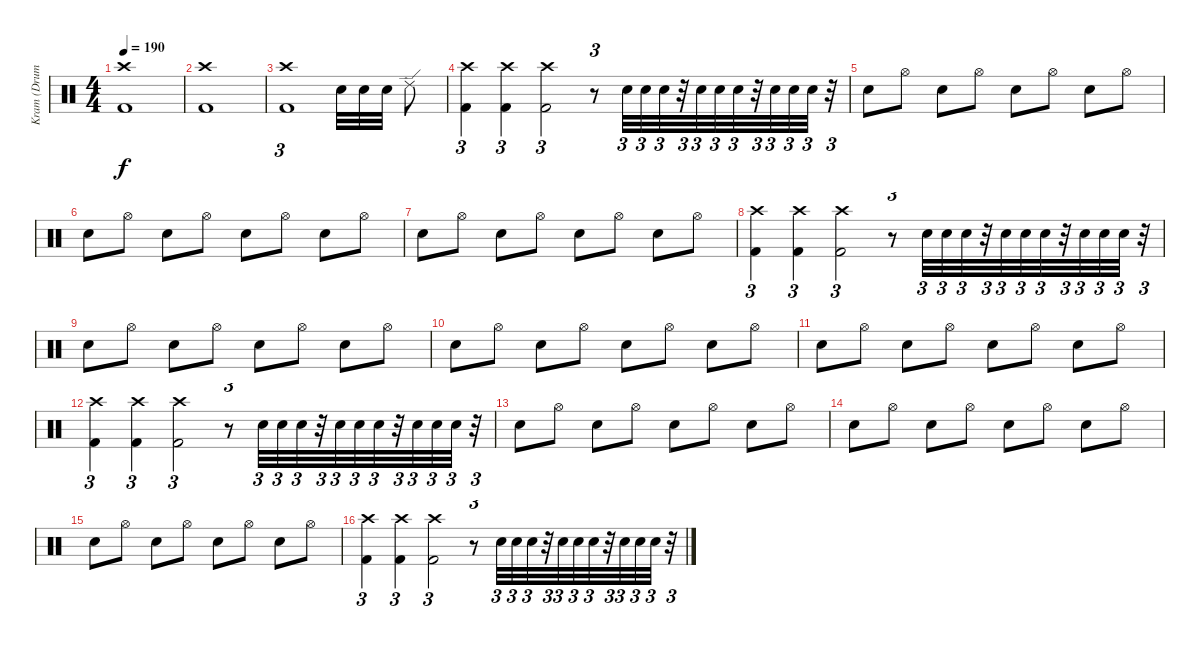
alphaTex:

\track ("Kram (Drums)" "Kram (Drum") {instrument percussion}
\staff {score}
\articulation defaults
\ts (4 4)
\tempo 190
\clef neutral
\ks c
("Kick (hit) 2" "Crash high (hit)").1{dy f} |
("Kick (hit) 2" "Crash high (hit)").1 |
("Kick (hit) 2" "Crash high (hit)").1{tu (3 2)} "Snare (hit) 2".32 "Snare (hit) 2".32 "Snare (hit) 2".32 "Ride (edge) 2".8 |
("Kick (hit) 2" "Crash high (hit)").4{tu (3 2)} ("Kick (hit) 2" "Crash high (hit)").4{tu (3 2)} ("Kick (hit) 2" "Crash high (hit)").2{tu (3 2)} r.8{tu (3 2)} "Snare (hit) 2".32{tu (3 2)} "Snare (hit) 2".32{tu (3 2)} "Snare (hit) 2".32{tu (3 2)} r.32{tu (3 2)} "Snare (hit) 2".32{tu (3 2)} "Snare (hit) 2".32{tu (3 2)} "Snare (hit) 2".32{tu (3 2)} r.32{tu (3 2)} "Snare (hit) 2".32{tu (3 2)} "Snare (hit) 2".32{tu (3 2)} "Snare (hit) 2".32{tu (3 2)} r.32{tu (3 2)} |
"Snare (hit) 2".8 "Hi-Hat (open)".8 "Snare (hit) 2".8 "Hi-Hat (open)".8 "Snare (hit) 2".8 "Hi-Hat (open)".8 "Snare (hit) 2".8 "Hi-Hat (open)".8 |
"Snare (hit) 2".8 "Hi-Hat (open)".8 "Snare (hit) 2".8 "Hi-Hat (open)".8 "Snare (hit) 2".8 "Hi-Hat (open)".8 "Snare (hit) 2".8 "Hi-Hat (open)".8 |
"Snare (hit) 2".8 "Hi-Hat (open)".8 "Snare (hit) 2".8 "Hi-Hat (open)".8 "Snare (hit) 2".8 "Hi-Hat (open)".8 "Snare (hit) 2".8 "Hi-Hat (open)".8 |
("Kick (hit) 2" "Crash high (hit)").4{tu (3 2)} ("Kick (hit) 2" "Crash high (hit)").4{tu (3 2)} ("Kick (hit) 2" "Crash high (hit)").2{tu (3 2)} r.8{tu (3 2)} "Snare (hit) 2".32{tu (3 2)} "Snare (hit) 2".32{tu (3 2)} "Snare (hit) 2".32{tu (3 2)} r.32{tu (3 2)} "Snare (hit) 2".32{tu (3 2)} "Snare (hit) 2".32{tu (3 2)} "Snare (hit) 2".32{tu (3 2)} r.32{tu (3 2)} "Snare (hit) 2".32{tu (3 2)} "Snare (hit) 2".32{tu (3 2)} "Snare (hit) 2".32{tu (3 2)} r.32{tu (3 2)} |
"Snare (hit) 2".8 "Hi-Hat (open)".8 "Snare (hit) 2".8 "Hi-Hat (open)".8 "Snare (hit) 2".8 "Hi-Hat (open)".8 "Snare (hit) 2".8 "Hi-Hat (open)".8 |
"Snare (hit) 2".8 "Hi-Hat (open)".8 "Snare (hit) 2".8 "Hi-Hat (open)".8 "Snare (hit) 2".8 "Hi-Hat (open)".8 "Snare (hit) 2".8 "Hi-Hat (open)".8 |
"Snare (hit) 2".8 "Hi-Hat (open)".8 "Snare (hit) 2".8 "Hi-Hat (open)".8 "Snare (hit) 2".8 "Hi-Hat (open)".8 "Snare (hit) 2".8 "Hi-Hat (open)".8 |
("Kick (hit) 2" "Crash high (hit)").4{tu (3 2)} ("Kick (hit) 2" "Crash high (hit)").4{tu (3 2)} ("Kick (hit) 2" "Crash high (hit)").2{tu (3 2)} r.8{tu (3 2)} "Snare (hit) 2".32{tu (3 2)} "Snare (hit) 2".32{tu (3 2)} "Snare (hit) 2".32{tu (3 2)} r.32{tu (3 2)} "Snare (hit) 2".32{tu (3 2)} "Snare (hit) 2".32{tu (3 2)} "Snare (hit) 2".32{tu (3 2)} r.32{tu (3 2)} "Snare (hit) 2".32{tu (3 2)} "Snare (hit) 2".32{tu (3 2)} "Snare (hit) 2".32{tu (3 2)} r.32{tu (3 2)} |
"Snare (hit) 2".8 "Hi-Hat (open)".8 "Snare (hit) 2".8 "Hi-Hat (open)".8 "Snare (hit) 2".8 "Hi-Hat (open)".8 "Snare (hit) 2".8 "Hi-Hat (open)".8 |
"Snare (hit) 2".8 "Hi-Hat (open)".8 "Snare (hit) 2".8 "Hi-Hat (open)".8 "Snare (hit) 2".8 "Hi-Hat (open)".8 "Snare (hit) 2".8 "Hi-Hat (open)".8 |
"Snare (hit) 2".8 "Hi-Hat (open)".8 "Snare (hit) 2".8 "Hi-Hat (open)".8 "Snare (hit) 2".8 "Hi-Hat (open)".8 "Snare (hit) 2".8 "Hi-Hat (open)".8 |
("Kick (hit) 2" "Crash high (hit)").4{tu (3 2)} ("Kick (hit) 2" "Crash high (hit)").4{tu (3 2)} ("Kick (hit) 2" "Crash high (hit)").2{tu (3 2)} r.8{tu (3 2)} "Snare (hit) 2".32{tu (3 2)} "Snare (hit) 2".32{tu (3 2)} "Snare (hit) 2".32{tu (3 2)} r.32{tu (3 2)} "Snare (hit) 2".32{tu (3 2)} "Snare (hit) 2".32{tu (3 2)} "Snare (hit) 2".32{tu (3 2)} r.32{tu (3 2)} "Snare (hit) 2".32{tu (3 2)} "Snare (hit) 2".32{tu (3 2)} "Snare (hit) 2".32{tu (3 2)} r.32{tu (3 2)}
